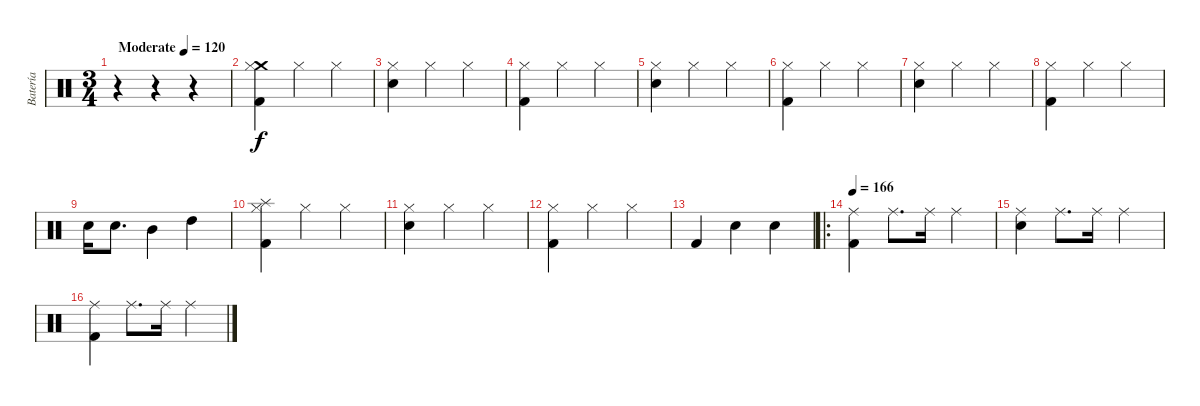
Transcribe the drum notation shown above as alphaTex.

\track ("Batería" "Batería") {instrument percussion}
\staff {score}
\articulation defaults
\ts (3 4)
\tempo (120 "Moderate")
\tempo 166
\tempo (120 "Moderate")
\clef neutral
\ks c
r.4{dy f} r.4 r.4 |
("Kick (hit) 2" "Crash medium (hit)" "Hi-Hat (closed)").4 "Hi-Hat (closed)".4 "Hi-Hat (closed)".4 |
("Snare (hit) 2" "Hi-Hat (closed)").4 "Hi-Hat (closed)".4 "Hi-Hat (closed)".4 |
("Kick (hit) 2" "Hi-Hat (closed)").4 "Hi-Hat (closed)".4 "Hi-Hat (closed)".4 |
("Snare (hit) 2" "Hi-Hat (closed)").4 "Hi-Hat (closed)".4 "Hi-Hat (closed)".4 |
("Kick (hit) 2" "Hi-Hat (closed)").4 "Hi-Hat (closed)".4 "Hi-Hat (closed)".4 |
("Snare (hit) 2" "Hi-Hat (closed)").4 "Hi-Hat (closed)".4 "Hi-Hat (closed)".4 |
("Kick (hit) 2" "Hi-Hat (closed)").4 "Hi-Hat (closed)".4 "Hi-Hat (closed)".4 |
"Snare (hit) 2".16 "Snare (hit) 2".8{d} "Mid Tom (hit)".4 "High Tom (hit)".4 |
("Kick (hit) 2" "Splash (hit)" "Hi-Hat (closed)").4 "Hi-Hat (closed)".4 "Hi-Hat (closed)".4 |
("Snare (hit) 2" "Hi-Hat (closed)").4 "Hi-Hat (closed)".4 "Hi-Hat (closed)".4 |
("Kick (hit) 2" "Hi-Hat (closed)").4 "Hi-Hat (closed)".4 "Hi-Hat (closed)".4 |
"Kick (hit) 2".4 "Snare (hit) 2".4 "Snare (hit) 2".4 |
\ro
\tempo 166
("Kick (hit) 2" "Ride (middle)").4 "Ride (middle)".8{d} "Ride (middle)".16 "Ride (middle)".4 |
("Snare (hit) 2" "Ride (middle)").4 "Ride (middle)".8{d} "Ride (middle)".16 "Ride (middle)".4 |
("Kick (hit) 2" "Ride (middle)").4 "Ride (middle)".8{d} "Ride (middle)".16 "Ride (middle)".4
